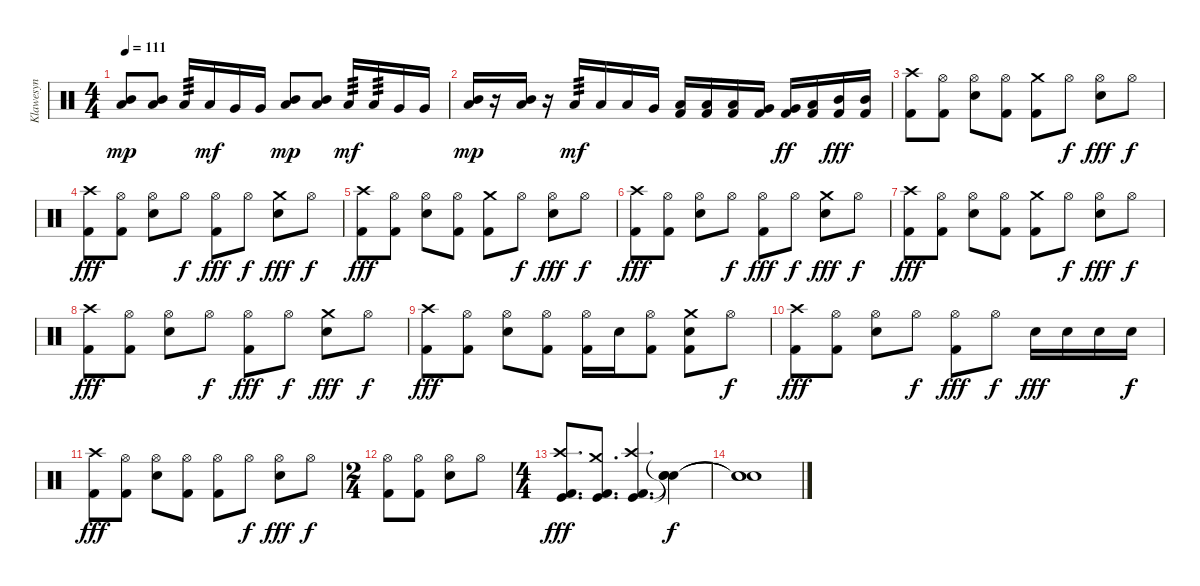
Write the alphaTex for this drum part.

\track ("Klawesyn" "Klawesyn") {instrument percussion}
\staff {score}
\articulation defaults
\ts (4 4)
\tempo 111
\clef neutral
\ks c
("Mid Tom (hit)" "Low Tom (hit)").8{dy mp} ("Mid Tom (hit)" "Low Tom (hit)").8 "Low Tom (hit)".16{tp 3} "Low Tom (hit)".16{dy mf} "Very Low Tom (hit)".16 "Very Low Tom (hit)".16 ("Mid Tom (hit)" "Low Tom (hit)").8{dy mp} ("Mid Tom (hit)" "Low Tom (hit)").8 "Low Tom (hit)".16{tp 3 dy mf} "Low Tom (hit)".16{tp 3} "Very Low Tom (hit)".16 "Very Low Tom (hit)".16 |
("Mid Tom (hit)" "Low Tom (hit)").16{dy mp} r.16 ("Mid Tom (hit)" "Low Tom (hit)").16 r.16 "Low Tom (hit)".16{tp 3 dy mf} "Low Tom (hit)".16 "Low Tom (hit)".16 "Very Low Tom (hit)".16 ("Low Tom (hit)" "Kick (hit) 2").16 ("Low Tom (hit)" "Kick (hit) 2").16 ("Low Tom (hit)" "Kick (hit) 2").16 ("Very Low Tom (hit)" "Kick (hit) 2").16 ("Very Low Tom (hit)" "Kick (hit) 2").16{dy ff} ("Low Tom (hit)" "Kick (hit) 2").16 ("Mid Tom (hit)" "Kick (hit) 2").16{dy fff} ("Mid Tom (hit)" "Kick (hit) 2").16 |
("Crash high (hit)" "Kick (hit) 2").8 ("Hi-Hat (open)" "Kick (hit) 2").8 ("Hi-Hat (open)" "Snare (hit) 2").8 ("Hi-Hat (open)" "Kick (hit) 2").8 ("Crash medium (hit)" "Kick (hit) 2").8 "Hi-Hat (open)".8{dy f} ("Hi-Hat (open)" "Snare (hit) 2").8{dy fff} "Hi-Hat (open)".8{dy f} |
("Crash high (hit)" "Kick (hit) 2").8{dy fff} ("Hi-Hat (open)" "Kick (hit) 2").8 ("Hi-Hat (open)" "Snare (hit) 2").8 "Hi-Hat (open)".8{dy f} ("Hi-Hat (open)" "Kick (hit) 2").8{dy fff} "Hi-Hat (open)".8{dy f} ("Crash medium (hit)" "Snare (hit) 2").8{dy fff} "Hi-Hat (open)".8{dy f} |
("Crash high (hit)" "Kick (hit) 2").8{dy fff} ("Hi-Hat (open)" "Kick (hit) 2").8 ("Hi-Hat (open)" "Snare (hit) 2").8 ("Hi-Hat (open)" "Kick (hit) 2").8 ("Crash medium (hit)" "Kick (hit) 2").8 "Hi-Hat (open)".8{dy f} ("Hi-Hat (open)" "Snare (hit) 2").8{dy fff} "Hi-Hat (open)".8{dy f} |
("Crash high (hit)" "Kick (hit) 2").8{dy fff} ("Hi-Hat (open)" "Kick (hit) 2").8 ("Hi-Hat (open)" "Snare (hit) 2").8 "Hi-Hat (open)".8{dy f} ("Hi-Hat (open)" "Kick (hit) 2").8{dy fff} "Hi-Hat (open)".8{dy f} ("Crash medium (hit)" "Snare (hit) 2").8{dy fff} "Hi-Hat (open)".8{dy f} |
("Crash high (hit)" "Kick (hit) 2").8{dy fff} ("Hi-Hat (open)" "Kick (hit) 2").8 ("Hi-Hat (open)" "Snare (hit) 2").8 ("Hi-Hat (open)" "Kick (hit) 2").8 ("Crash medium (hit)" "Kick (hit) 2").8 "Hi-Hat (open)".8{dy f} ("Hi-Hat (open)" "Snare (hit) 2").8{dy fff} "Hi-Hat (open)".8{dy f} |
("Crash high (hit)" "Kick (hit) 2").8{dy fff} ("Hi-Hat (open)" "Kick (hit) 2").8 ("Hi-Hat (open)" "Snare (hit) 2").8 "Hi-Hat (open)".8{dy f} ("Hi-Hat (open)" "Kick (hit) 2").8{dy fff} "Hi-Hat (open)".8{dy f} ("Crash medium (hit)" "Snare (hit) 2").8{dy fff} "Hi-Hat (open)".8{dy f} |
("Crash high (hit)" "Kick (hit) 2").8{dy fff} ("Hi-Hat (open)" "Kick (hit) 2").8 ("Hi-Hat (open)" "Snare (hit) 2").8 ("Hi-Hat (open)" "Kick (hit) 2").8 ("Hi-Hat (open)" "Kick (hit) 2").16 "Snare (hit) 2".16 ("Hi-Hat (open)" "Kick (hit) 2").8 ("Crash medium (hit)" "Snare (hit) 2" "Kick (hit) 2").8 "Hi-Hat (open)".8{dy f} |
("Crash high (hit)" "Kick (hit) 2").8{dy fff} ("Hi-Hat (open)" "Kick (hit) 2").8 ("Hi-Hat (open)" "Snare (hit) 2").8 "Hi-Hat (open)".8{dy f} ("Hi-Hat (open)" "Kick (hit) 2").8{dy fff} "Hi-Hat (open)".8{dy f} "Snare (hit) 2".16{dy fff} "Snare (hit) 2".16 "Snare (hit) 2".16 "Snare (hit) 2".16{dy f} |
("Crash high (hit)" "Kick (hit) 2").8{dy fff} ("Hi-Hat (open)" "Kick (hit) 2").8 ("Hi-Hat (open)" "Snare (hit) 2").8 ("Hi-Hat (open)" "Kick (hit) 2").8 ("Hi-Hat (open)" "Kick (hit) 2").8 "Hi-Hat (open)".8{dy f} ("Hi-Hat (open)" "Snare (hit) 2").8{dy fff} "Hi-Hat (open)".8{dy f} |
\ts (2 4)
("Hi-Hat (open)" "Kick (hit) 2").8 ("Hi-Hat (open)" "Kick (hit) 2").8 ("Hi-Hat (open)" "Snare (hit) 2").8 "Hi-Hat (open)".8 |
\ts (4 4)
("Crash high (hit)" "Kick (hit)" "Kick (hit) 2").8{d dy fff} ("Crash medium (hit)" "Kick (hit)" "Kick (hit) 2").8{d} ("Crash high (hit)" "Kick (hit)" "Kick (hit) 2").4{d} ("Snare (hit)"{t} "Snare (hit)"{t} "Snare (hit)"{t}).4{dy f} |
("Snare (hit)"{t} "Snare (hit)"{t} "Snare (hit)"{t}).1
